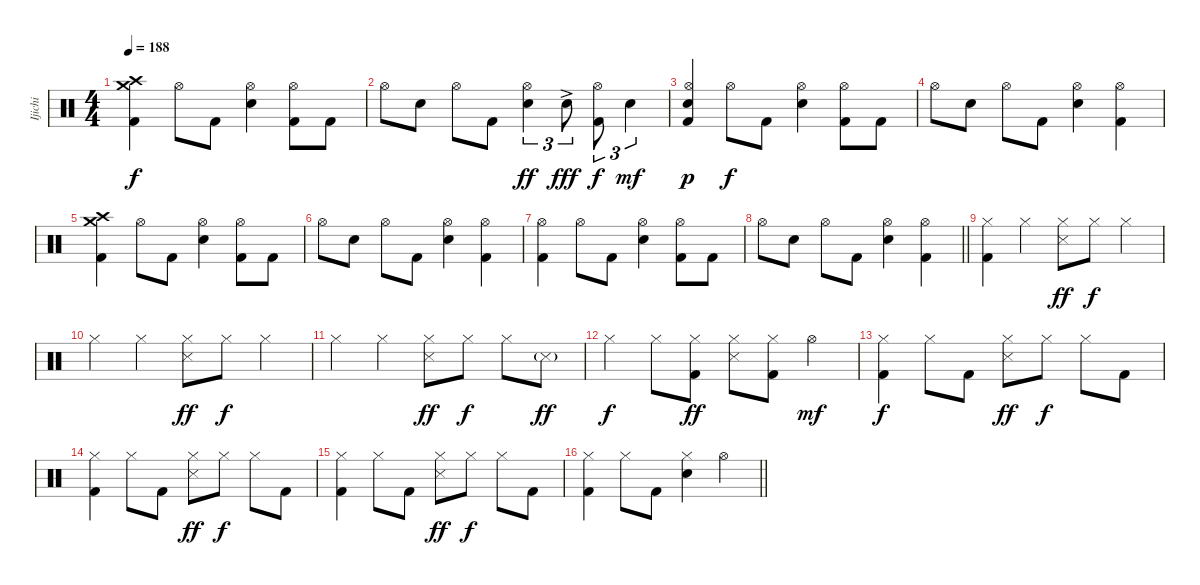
\track ("Ijichi" "Ijichi") {instrument percussion}
\staff {score}
\articulation defaults
\ts (4 4)
\tempo 188
\clef neutral
\ks c
("Crash high (hit)" "Crash medium (hit)" "Kick (hit) 2").4{dy f} "Hi-Hat (open)".8 "Kick (hit) 2".8 ("Hi-Hat (open)" "Electric Snare (hit)").4 ("Hi-Hat (open)" "Kick (hit) 2").8 "Kick (hit) 2".8 |
"Hi-Hat (open)".8 "Electric Snare (hit)".8 "Hi-Hat (open)".8 "Kick (hit) 2".8 ("Hi-Hat (open)" "Electric Snare (hit)").4{tu (3 2) dy ff} "Electric Snare (hit)"{ac}.8{tu (3 2) dy fff} ("Hi-Hat (open)" "Kick (hit) 2").8{tu (3 2) dy f} "Electric Snare (hit)".4{tu (3 2) dy mf} |
("Hi-Hat (open)" "Electric Snare (hit)" "Kick (hit) 2").4{dy p} "Hi-Hat (open)".8{dy f} "Kick (hit) 2".8 ("Hi-Hat (open)" "Electric Snare (hit)").4 ("Hi-Hat (open)" "Kick (hit) 2").8 "Kick (hit) 2".8 |
"Hi-Hat (open)".8 "Electric Snare (hit)".8 "Hi-Hat (open)".8 "Kick (hit) 2".8 ("Hi-Hat (open)" "Electric Snare (hit)").4 ("Hi-Hat (open)" "Kick (hit) 2").4 |
("Crash high (hit)" "Crash medium (hit)" "Kick (hit) 2").4 "Hi-Hat (open)".8 "Kick (hit) 2".8 ("Hi-Hat (open)" "Electric Snare (hit)").4 ("Hi-Hat (open)" "Kick (hit) 2").8 "Kick (hit) 2".8 |
"Hi-Hat (open)".8 "Electric Snare (hit)".8 "Hi-Hat (open)".8 "Kick (hit) 2".8 ("Hi-Hat (open)" "Electric Snare (hit)").4 ("Hi-Hat (open)" "Kick (hit) 2").4 |
("Hi-Hat (open)" "Kick (hit) 2").4 "Hi-Hat (open)".8 "Kick (hit) 2".8 ("Hi-Hat (open)" "Electric Snare (hit)").4 ("Hi-Hat (open)" "Kick (hit) 2").8 "Kick (hit) 2".8 |
\barLineRight lightlight "Hi-Hat (open)".8 "Electric Snare (hit)".8 "Hi-Hat (open)".8 "Kick (hit) 2".8
("Hi-Hat (open)" "Electric Snare (hit)").4 ("Hi-Hat (open)" "Kick (hit) 2").4 |
("Hi-Hat (closed)" "Kick (hit) 2").4 "Hi-Hat (closed)".4 ("Hi-Hat (closed)" "Snare (side stick) 3").8{dy ff} "Hi-Hat (closed)".8{dy f} "Hi-Hat (closed)".4 |
"Hi-Hat (closed)".4 "Hi-Hat (closed)".4 ("Hi-Hat (closed)" "Snare (side stick) 3").8{dy ff} "Hi-Hat (closed)".8{dy f} "Hi-Hat (closed)".4 |
"Hi-Hat (closed)".4 "Hi-Hat (closed)".4 ("Hi-Hat (closed)" "Snare (side stick) 3").8{dy ff} "Hi-Hat (closed)".8{dy f} "Hi-Hat (closed)".8 "Snare (side stick) 3"{g}.8{dy ff} |
"Hi-Hat (closed)".4{dy f} "Hi-Hat (closed)".8 ("Hi-Hat (closed)" "Kick (hit) 2").8{dy ff} ("Hi-Hat (closed)" "Snare (side stick) 3").8 ("Hi-Hat (closed)" "Kick (hit) 2").8 "Hi-Hat (open)".4{dy mf} |
("Hi-Hat (closed)" "Kick (hit) 2").4{dy f} "Hi-Hat (closed)".8 "Kick (hit) 2".8 ("Hi-Hat (closed)" "Snare (side stick) 3").8{dy ff} "Hi-Hat (closed)".8{dy f} "Hi-Hat (closed)".8 "Kick (hit) 2".8 |
("Hi-Hat (closed)" "Kick (hit) 2").4 "Hi-Hat (closed)".8 "Kick (hit) 2".8 ("Hi-Hat (closed)" "Snare (side stick) 3").8{dy ff} "Hi-Hat (closed)".8{dy f} "Hi-Hat (closed)".8 "Kick (hit) 2".8 |
("Hi-Hat (closed)" "Kick (hit) 2").4 "Hi-Hat (closed)".8 "Kick (hit) 2".8 ("Hi-Hat (closed)" "Snare (side stick) 3").8{dy ff} "Hi-Hat (closed)".8{dy f} "Hi-Hat (closed)".8 "Kick (hit) 2".8 |
\barLineRight lightlight
("Hi-Hat (closed)" "Kick (hit) 2").4 "Hi-Hat (closed)".8 "Kick (hit) 2".8 ("Hi-Hat (closed)" "Electric Snare (hit)").4 "Hi-Hat (open)".4
